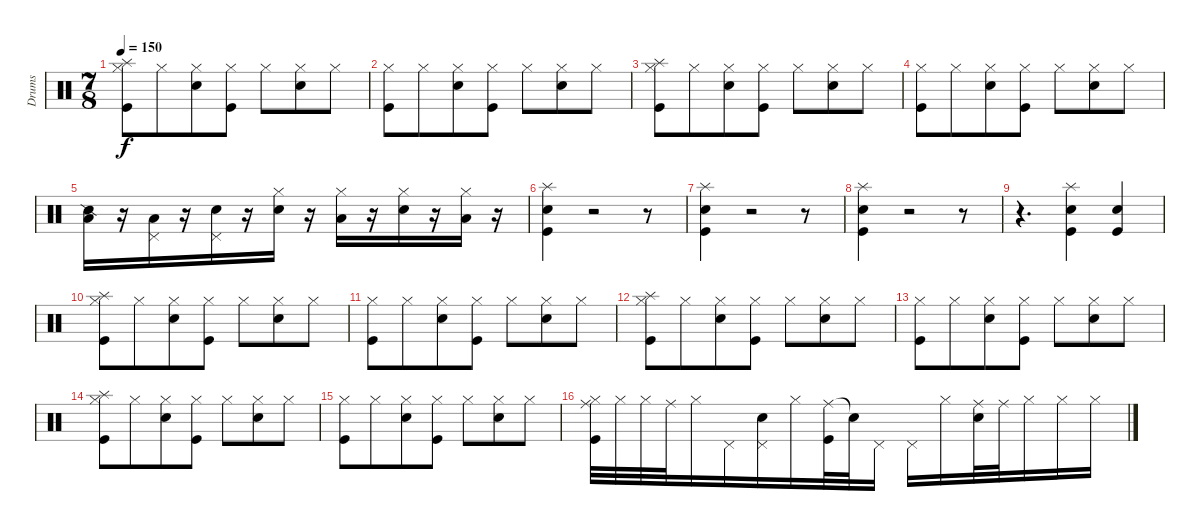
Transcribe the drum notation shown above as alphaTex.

\track ("Drums" "Drums") {instrument percussion}
\staff {score}
\articulation defaults
\ts (7 8)
\tempo 150
\clef neutral
\ks c
("Splash (hit)" "Kick (hit)" "Hi-Hat (closed)").8{dy f} "Hi-Hat (closed)".8 ("Snare (hit) 2" "Hi-Hat (closed)").8 ("Kick (hit)" "Hi-Hat (closed)").8 "Hi-Hat (closed)".8 ("Snare (hit) 2" "Hi-Hat (closed)").8 "Hi-Hat (closed)".8 |
("Kick (hit)" "Hi-Hat (closed)").8 "Hi-Hat (closed)".8 ("Snare (hit) 2" "Hi-Hat (closed)").8 ("Kick (hit)" "Hi-Hat (closed)").8 "Hi-Hat (closed)".8 ("Snare (hit) 2" "Hi-Hat (closed)").8 "Hi-Hat (closed)".8 |
("Splash (hit)" "Kick (hit)" "Hi-Hat (closed)").8 "Hi-Hat (closed)".8 ("Snare (hit) 2" "Hi-Hat (closed)").8 ("Kick (hit)" "Hi-Hat (closed)").8 "Hi-Hat (closed)".8 ("Snare (hit) 2" "Hi-Hat (closed)").8 "Hi-Hat (closed)".8 |
("Kick (hit)" "Hi-Hat (closed)").8 "Hi-Hat (closed)".8 ("Snare (hit) 2" "Hi-Hat (closed)").8 ("Kick (hit)" "Hi-Hat (closed)").8 "Hi-Hat (closed)".8 ("Snare (hit) 2" "Hi-Hat (closed)").8 "Hi-Hat (closed)".8 |
("Low Tom (hit)" "Snare (side stick) 2").16 r.16 ("Pedal Hi-Hat (hit)" "Low Tom (hit)").16 r.16 ("Pedal Hi-Hat (hit)" "Snare (hit) 2").16 r.16 ("Hi-Hat (closed)" "Snare (hit) 2").16 r.16 ("Hi-Hat (closed)" "Low Tom (hit)").16 r.16 ("Hi-Hat (closed)" "Snare (hit) 2").16 r.16 ("Hi-Hat (closed)" "Low Tom (hit)").16 r.16 |
("Splash (hit)" "Snare (hit) 2" "Kick (hit)").4 r.2 r.8 |
("Splash (hit)" "Snare (hit) 2" "Kick (hit)").4 r.2 r.8 |
("Splash (hit)" "Snare (hit) 2" "Kick (hit)").4 r.2 r.8 |
r.4{d} ("Splash (hit)" "Snare (hit) 2" "Kick (hit)").4 ("Snare (hit) 2" "Kick (hit)").4 |
("Splash (hit)" "Kick (hit)" "Hi-Hat (closed)").8 "Hi-Hat (closed)".8 ("Snare (hit) 2" "Hi-Hat (closed)").8 ("Kick (hit)" "Hi-Hat (closed)").8 "Hi-Hat (closed)".8 ("Snare (hit) 2" "Hi-Hat (closed)").8 "Hi-Hat (closed)".8 |
("Kick (hit)" "Hi-Hat (closed)").8 "Hi-Hat (closed)".8 ("Snare (hit) 2" "Hi-Hat (closed)").8 ("Kick (hit)" "Hi-Hat (closed)").8 "Hi-Hat (closed)".8 ("Snare (hit) 2" "Hi-Hat (closed)").8 "Hi-Hat (closed)".8 |
("Splash (hit)" "Kick (hit)" "Hi-Hat (closed)").8 "Hi-Hat (closed)".8 ("Snare (hit) 2" "Hi-Hat (closed)").8 ("Kick (hit)" "Hi-Hat (closed)").8 "Hi-Hat (closed)".8 ("Snare (hit) 2" "Hi-Hat (closed)").8 "Hi-Hat (closed)".8 |
("Kick (hit)" "Hi-Hat (closed)").8 "Hi-Hat (closed)".8 ("Snare (hit) 2" "Hi-Hat (closed)").8 ("Kick (hit)" "Hi-Hat (closed)").8 "Hi-Hat (closed)".8 ("Snare (hit) 2" "Hi-Hat (closed)").8 "Hi-Hat (closed)".8 |
("Splash (hit)" "Kick (hit)" "Hi-Hat (closed)").8 "Hi-Hat (closed)".8 ("Snare (hit) 2" "Hi-Hat (closed)").8 ("Kick (hit)" "Hi-Hat (closed)").8 "Hi-Hat (closed)".8 ("Snare (hit) 2" "Hi-Hat (closed)").8 "Hi-Hat (closed)".8 |
("Kick (hit)" "Hi-Hat (closed)").8 "Hi-Hat (closed)".8 ("Snare (hit) 2" "Hi-Hat (closed)").8 ("Kick (hit)" "Hi-Hat (closed)").8 "Hi-Hat (closed)".8 ("Snare (hit) 2" "Hi-Hat (closed)").8 "Hi-Hat (closed)".8 |
("Hi-Hat (closed)" "Ride (middle)" "Kick (hit)").32 "Hi-Hat (closed)".32 "Hi-Hat (closed)".32 "Ride (middle)".32 "Hi-Hat (closed)".16 "Pedal Hi-Hat (hit)".16 ("Pedal Hi-Hat (hit)" "Snare (hit) 2").16 "Hi-Hat (closed)".16 ("Ride (middle)" "Kick (hit)").32 "Snare (hit)"{t}.32 "Pedal Hi-Hat (hit)".16 "Pedal Hi-Hat (hit)".16 "Hi-Hat (closed)".16 ("Ride (middle)" "Snare (hit) 2").32 "Ride (middle)".32 "Hi-Hat (closed)".16 "Hi-Hat (closed)".16 "Hi-Hat (closed)".16
